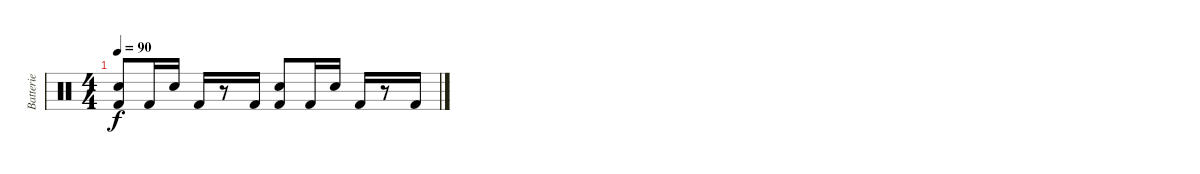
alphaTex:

\track ("Batterie" "Batterie") {instrument percussion}
\staff {score}
\articulation defaults
\ts (4 4)
\tempo 90
\clef neutral
\ks c
("Metronome (bell)" "Kick (hit) 2").8{dy f} "Kick (hit) 2".16 "Metronome (bell)".16 "Kick (hit) 2".16 r.8 "Kick (hit) 2".16 ("Metronome (bell)" "Kick (hit) 2").8 "Kick (hit) 2".16 "Metronome (bell)".16 "Kick (hit) 2".16 r.8 "Kick (hit) 2".16
